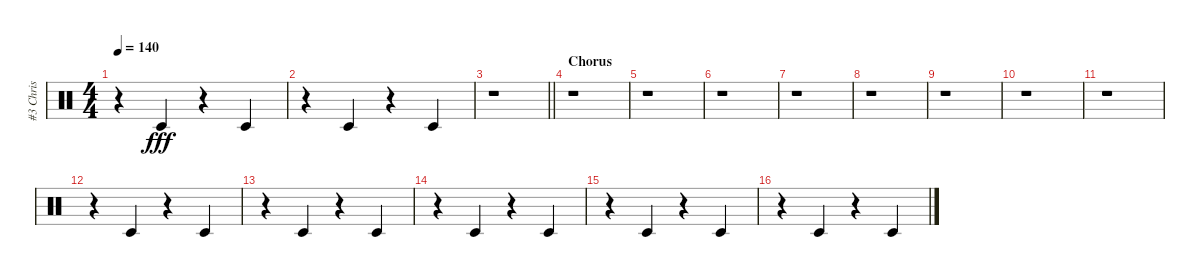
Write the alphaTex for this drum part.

\track ("#3 Chris" "#3 Chris") {solo instrument percussion}
\staff {score}
\articulation defaults
\ts (4 4)
\tempo 140
\clef neutral
\ks c
r.4{dy fff} "Timbale low (hit)".4 r.4 "Timbale low (hit)".4 |
r.4 "Timbale low (hit)".4 r.4 "Timbale low (hit)".4 |
\barLineRight lightlight
r.1 |
\section ("" "Chorus")
r.1 |
r.1 |
r.1 |
r.1 |
r.1 |
r.1 |
r.1 |
r.1 |
r.4 "Timbale low (hit)".4 r.4 "Timbale low (hit)".4 |
r.4 "Timbale low (hit)".4 r.4 "Timbale low (hit)".4 |
r.4 "Timbale low (hit)".4 r.4 "Timbale low (hit)".4 |
r.4 "Timbale low (hit)".4 r.4 "Timbale low (hit)".4 |
r.4 "Timbale low (hit)".4 r.4 "Timbale low (hit)".4
